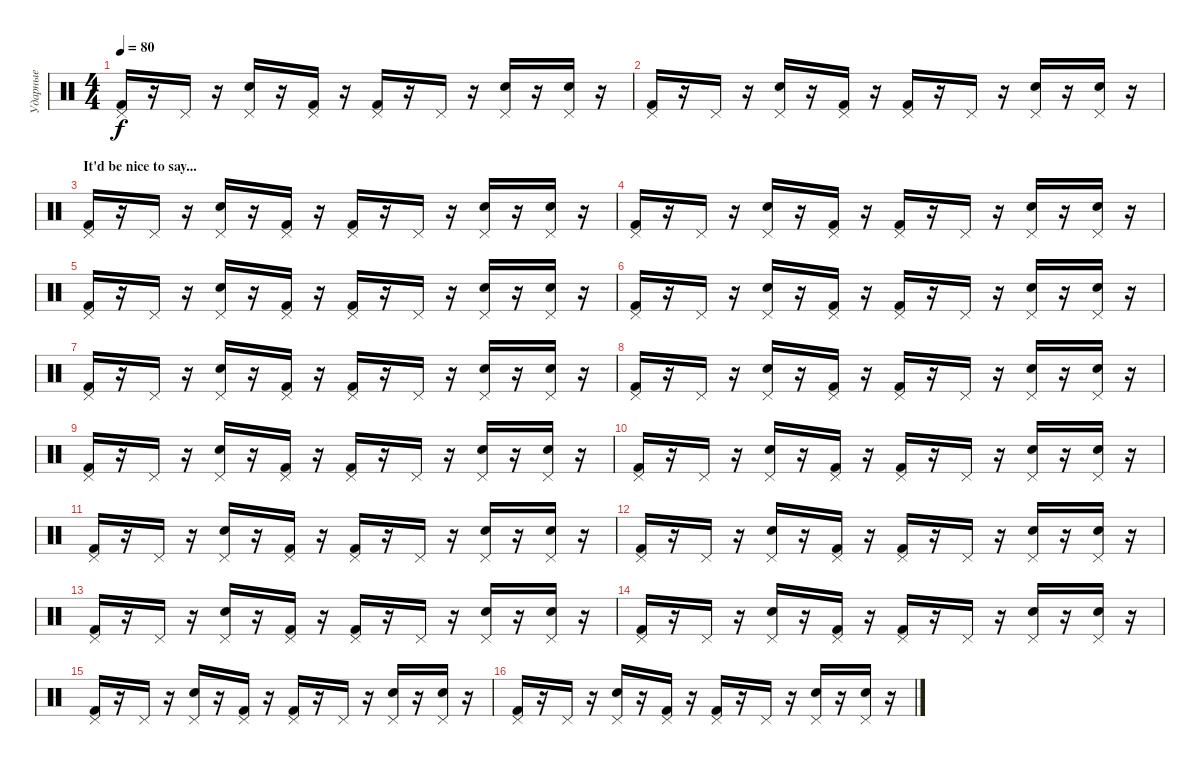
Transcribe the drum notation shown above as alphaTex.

\track ("Ударные" "Ударные") {instrument percussion}
\staff {score}
\articulation defaults
\ts (4 4)
\tempo 80
\clef neutral
\ks c
("Pedal Hi-Hat (hit)" "Kick (hit) 2").16{dy f} r.16 "Pedal Hi-Hat (hit)".16 r.16 ("Pedal Hi-Hat (hit)" "Snare (hit) 2").16 r.16 ("Pedal Hi-Hat (hit)" "Kick (hit) 2").16 r.16 ("Pedal Hi-Hat (hit)" "Kick (hit) 2").16 r.16 "Pedal Hi-Hat (hit)".16 r.16 ("Pedal Hi-Hat (hit)" "Snare (hit) 2").16 r.16 ("Pedal Hi-Hat (hit)" "Snare (hit) 2").16 r.16 |
("Pedal Hi-Hat (hit)" "Kick (hit) 2").16 r.16 "Pedal Hi-Hat (hit)".16 r.16 ("Pedal Hi-Hat (hit)" "Snare (hit) 2").16 r.16 ("Pedal Hi-Hat (hit)" "Kick (hit) 2").16 r.16 ("Pedal Hi-Hat (hit)" "Kick (hit) 2").16 r.16 "Pedal Hi-Hat (hit)".16 r.16 ("Pedal Hi-Hat (hit)" "Snare (hit) 2").16 r.16 ("Pedal Hi-Hat (hit)" "Snare (hit) 2").16 r.16 |
\section ("" "It'd be nice to say...")
("Pedal Hi-Hat (hit)" "Kick (hit) 2").16 r.16 "Pedal Hi-Hat (hit)".16 r.16 ("Pedal Hi-Hat (hit)" "Snare (hit) 2").16 r.16 ("Pedal Hi-Hat (hit)" "Kick (hit) 2").16 r.16 ("Pedal Hi-Hat (hit)" "Kick (hit) 2").16 r.16 "Pedal Hi-Hat (hit)".16 r.16 ("Pedal Hi-Hat (hit)" "Snare (hit) 2").16 r.16 ("Pedal Hi-Hat (hit)" "Snare (hit) 2").16 r.16 |
("Pedal Hi-Hat (hit)" "Kick (hit) 2").16 r.16 "Pedal Hi-Hat (hit)".16 r.16 ("Pedal Hi-Hat (hit)" "Snare (hit) 2").16 r.16 ("Pedal Hi-Hat (hit)" "Kick (hit) 2").16 r.16 ("Pedal Hi-Hat (hit)" "Kick (hit) 2").16 r.16 "Pedal Hi-Hat (hit)".16 r.16 ("Pedal Hi-Hat (hit)" "Snare (hit) 2").16 r.16 ("Pedal Hi-Hat (hit)" "Snare (hit) 2").16 r.16 |
("Pedal Hi-Hat (hit)" "Kick (hit) 2").16 r.16 "Pedal Hi-Hat (hit)".16 r.16 ("Pedal Hi-Hat (hit)" "Snare (hit) 2").16 r.16 ("Pedal Hi-Hat (hit)" "Kick (hit) 2").16 r.16 ("Pedal Hi-Hat (hit)" "Kick (hit) 2").16 r.16 "Pedal Hi-Hat (hit)".16 r.16 ("Pedal Hi-Hat (hit)" "Snare (hit) 2").16 r.16 ("Pedal Hi-Hat (hit)" "Snare (hit) 2").16 r.16 |
("Pedal Hi-Hat (hit)" "Kick (hit) 2").16 r.16 "Pedal Hi-Hat (hit)".16 r.16 ("Pedal Hi-Hat (hit)" "Snare (hit) 2").16 r.16 ("Pedal Hi-Hat (hit)" "Kick (hit) 2").16 r.16 ("Pedal Hi-Hat (hit)" "Kick (hit) 2").16 r.16 "Pedal Hi-Hat (hit)".16 r.16 ("Pedal Hi-Hat (hit)" "Snare (hit) 2").16 r.16 ("Pedal Hi-Hat (hit)" "Snare (hit) 2").16 r.16 |
("Pedal Hi-Hat (hit)" "Kick (hit) 2").16 r.16 "Pedal Hi-Hat (hit)".16 r.16 ("Pedal Hi-Hat (hit)" "Snare (hit) 2").16 r.16 ("Pedal Hi-Hat (hit)" "Kick (hit) 2").16 r.16 ("Pedal Hi-Hat (hit)" "Kick (hit) 2").16 r.16 "Pedal Hi-Hat (hit)".16 r.16 ("Pedal Hi-Hat (hit)" "Snare (hit) 2").16 r.16 ("Pedal Hi-Hat (hit)" "Snare (hit) 2").16 r.16 |
("Pedal Hi-Hat (hit)" "Kick (hit) 2").16 r.16 "Pedal Hi-Hat (hit)".16 r.16 ("Pedal Hi-Hat (hit)" "Snare (hit) 2").16 r.16 ("Pedal Hi-Hat (hit)" "Kick (hit) 2").16 r.16 ("Pedal Hi-Hat (hit)" "Kick (hit) 2").16 r.16 "Pedal Hi-Hat (hit)".16 r.16 ("Pedal Hi-Hat (hit)" "Snare (hit) 2").16 r.16 ("Pedal Hi-Hat (hit)" "Snare (hit) 2").16 r.16 |
("Pedal Hi-Hat (hit)" "Kick (hit) 2").16 r.16 "Pedal Hi-Hat (hit)".16 r.16 ("Pedal Hi-Hat (hit)" "Snare (hit) 2").16 r.16 ("Pedal Hi-Hat (hit)" "Kick (hit) 2").16 r.16 ("Pedal Hi-Hat (hit)" "Kick (hit) 2").16 r.16 "Pedal Hi-Hat (hit)".16 r.16 ("Pedal Hi-Hat (hit)" "Snare (hit) 2").16 r.16 ("Pedal Hi-Hat (hit)" "Snare (hit) 2").16 r.16 |
("Pedal Hi-Hat (hit)" "Kick (hit) 2").16 r.16 "Pedal Hi-Hat (hit)".16 r.16 ("Pedal Hi-Hat (hit)" "Snare (hit) 2").16 r.16 ("Pedal Hi-Hat (hit)" "Kick (hit) 2").16 r.16 ("Pedal Hi-Hat (hit)" "Kick (hit) 2").16 r.16 "Pedal Hi-Hat (hit)".16 r.16 ("Pedal Hi-Hat (hit)" "Snare (hit) 2").16 r.16 ("Pedal Hi-Hat (hit)" "Snare (hit) 2").16 r.16 |
("Pedal Hi-Hat (hit)" "Kick (hit) 2").16 r.16 "Pedal Hi-Hat (hit)".16 r.16 ("Pedal Hi-Hat (hit)" "Snare (hit) 2").16 r.16 ("Pedal Hi-Hat (hit)" "Kick (hit) 2").16 r.16 ("Pedal Hi-Hat (hit)" "Kick (hit) 2").16 r.16 "Pedal Hi-Hat (hit)".16 r.16 ("Pedal Hi-Hat (hit)" "Snare (hit) 2").16 r.16 ("Pedal Hi-Hat (hit)" "Snare (hit) 2").16 r.16 |
("Pedal Hi-Hat (hit)" "Kick (hit) 2").16 r.16 "Pedal Hi-Hat (hit)".16 r.16 ("Pedal Hi-Hat (hit)" "Snare (hit) 2").16 r.16 ("Pedal Hi-Hat (hit)" "Kick (hit) 2").16 r.16 ("Pedal Hi-Hat (hit)" "Kick (hit) 2").16 r.16 "Pedal Hi-Hat (hit)".16 r.16 ("Pedal Hi-Hat (hit)" "Snare (hit) 2").16 r.16 ("Pedal Hi-Hat (hit)" "Snare (hit) 2").16 r.16 |
("Pedal Hi-Hat (hit)" "Kick (hit) 2").16 r.16 "Pedal Hi-Hat (hit)".16 r.16 ("Pedal Hi-Hat (hit)" "Snare (hit) 2").16 r.16 ("Pedal Hi-Hat (hit)" "Kick (hit) 2").16 r.16 ("Pedal Hi-Hat (hit)" "Kick (hit) 2").16 r.16 "Pedal Hi-Hat (hit)".16 r.16 ("Pedal Hi-Hat (hit)" "Snare (hit) 2").16 r.16 ("Pedal Hi-Hat (hit)" "Snare (hit) 2").16 r.16 |
("Pedal Hi-Hat (hit)" "Kick (hit) 2").16 r.16 "Pedal Hi-Hat (hit)".16 r.16 ("Pedal Hi-Hat (hit)" "Snare (hit) 2").16 r.16 ("Pedal Hi-Hat (hit)" "Kick (hit) 2").16 r.16 ("Pedal Hi-Hat (hit)" "Kick (hit) 2").16 r.16 "Pedal Hi-Hat (hit)".16 r.16 ("Pedal Hi-Hat (hit)" "Snare (hit) 2").16 r.16 ("Pedal Hi-Hat (hit)" "Snare (hit) 2").16 r.16 |
("Pedal Hi-Hat (hit)" "Kick (hit) 2").16 r.16 "Pedal Hi-Hat (hit)".16 r.16 ("Pedal Hi-Hat (hit)" "Snare (hit) 2").16 r.16 ("Pedal Hi-Hat (hit)" "Kick (hit) 2").16 r.16 ("Pedal Hi-Hat (hit)" "Kick (hit) 2").16 r.16 "Pedal Hi-Hat (hit)".16 r.16 ("Pedal Hi-Hat (hit)" "Snare (hit) 2").16 r.16 ("Pedal Hi-Hat (hit)" "Snare (hit) 2").16 r.16 |
("Pedal Hi-Hat (hit)" "Kick (hit) 2").16 r.16 "Pedal Hi-Hat (hit)".16 r.16 ("Pedal Hi-Hat (hit)" "Snare (hit) 2").16 r.16 ("Pedal Hi-Hat (hit)" "Kick (hit) 2").16 r.16 ("Pedal Hi-Hat (hit)" "Kick (hit) 2").16 r.16 "Pedal Hi-Hat (hit)".16 r.16 ("Pedal Hi-Hat (hit)" "Snare (hit) 2").16 r.16 ("Pedal Hi-Hat (hit)" "Snare (hit) 2").16 r.16
